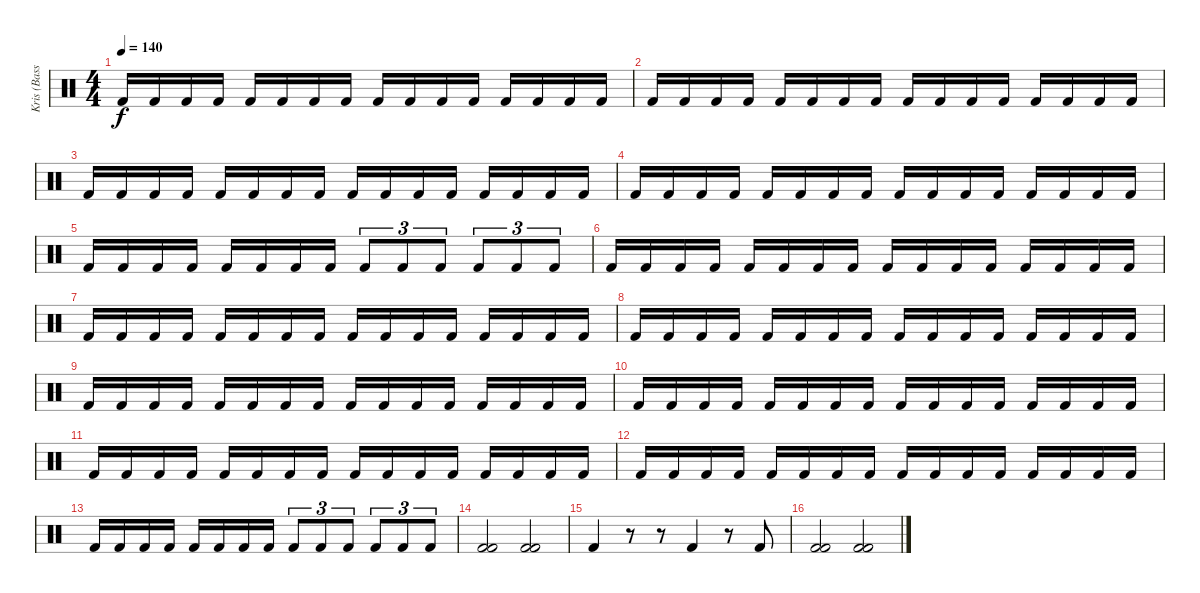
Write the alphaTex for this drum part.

\track ("Kris (Bass Drums)" "Kris (Bass") {instrument percussion}
\staff {score}
\articulation defaults
\ts (4 4)
\tempo 140
\clef neutral
\ks c "Kick (hit) 2".16{dy f} "Kick (hit) 2".16 "Kick (hit) 2".16 "Kick (hit) 2".16 "Kick (hit) 2".16 "Kick (hit) 2".16 "Kick (hit) 2".16 "Kick (hit) 2".16 "Kick (hit) 2".16 "Kick (hit) 2".16 "Kick (hit) 2".16 "Kick (hit) 2".16 "Kick (hit) 2".16 "Kick (hit) 2".16 "Kick (hit) 2".16 "Kick (hit) 2".16
|
"Kick (hit) 2".16 "Kick (hit) 2".16 "Kick (hit) 2".16 "Kick (hit) 2".16 "Kick (hit) 2".16 "Kick (hit) 2".16 "Kick (hit) 2".16 "Kick (hit) 2".16 "Kick (hit) 2".16 "Kick (hit) 2".16 "Kick (hit) 2".16 "Kick (hit) 2".16 "Kick (hit) 2".16 "Kick (hit) 2".16 "Kick (hit) 2".16 "Kick (hit) 2".16 |
"Kick (hit) 2".16 "Kick (hit) 2".16 "Kick (hit) 2".16 "Kick (hit) 2".16 "Kick (hit) 2".16 "Kick (hit) 2".16 "Kick (hit) 2".16 "Kick (hit) 2".16 "Kick (hit) 2".16 "Kick (hit) 2".16 "Kick (hit) 2".16 "Kick (hit) 2".16 "Kick (hit) 2".16 "Kick (hit) 2".16 "Kick (hit) 2".16 "Kick (hit) 2".16 |
"Kick (hit) 2".16 "Kick (hit) 2".16 "Kick (hit) 2".16 "Kick (hit) 2".16 "Kick (hit) 2".16 "Kick (hit) 2".16 "Kick (hit) 2".16 "Kick (hit) 2".16 "Kick (hit) 2".16 "Kick (hit) 2".16 "Kick (hit) 2".16 "Kick (hit) 2".16 "Kick (hit) 2".16 "Kick (hit) 2".16 "Kick (hit) 2".16 "Kick (hit) 2".16 |
"Kick (hit) 2".16 "Kick (hit) 2".16 "Kick (hit) 2".16 "Kick (hit) 2".16 "Kick (hit) 2".16 "Kick (hit) 2".16 "Kick (hit) 2".16 "Kick (hit) 2".16 "Kick (hit) 2".8{tu (3 2)} "Kick (hit) 2".8{tu (3 2)} "Kick (hit) 2".8{tu (3 2)} "Kick (hit) 2".8{tu (3 2)} "Kick (hit) 2".8{tu (3 2)} "Kick (hit) 2".8{tu (3 2)} |
"Kick (hit) 2".16 "Kick (hit) 2".16 "Kick (hit) 2".16 "Kick (hit) 2".16 "Kick (hit) 2".16 "Kick (hit) 2".16 "Kick (hit) 2".16 "Kick (hit) 2".16 "Kick (hit) 2".16 "Kick (hit) 2".16 "Kick (hit) 2".16 "Kick (hit) 2".16 "Kick (hit) 2".16 "Kick (hit) 2".16 "Kick (hit) 2".16 "Kick (hit) 2".16 |
"Kick (hit) 2".16 "Kick (hit) 2".16 "Kick (hit) 2".16 "Kick (hit) 2".16 "Kick (hit) 2".16 "Kick (hit) 2".16 "Kick (hit) 2".16 "Kick (hit) 2".16 "Kick (hit) 2".16 "Kick (hit) 2".16 "Kick (hit) 2".16 "Kick (hit) 2".16 "Kick (hit) 2".16 "Kick (hit) 2".16 "Kick (hit) 2".16 "Kick (hit) 2".16 |
"Kick (hit) 2".16 "Kick (hit) 2".16 "Kick (hit) 2".16 "Kick (hit) 2".16 "Kick (hit) 2".16 "Kick (hit) 2".16 "Kick (hit) 2".16 "Kick (hit) 2".16 "Kick (hit) 2".16 "Kick (hit) 2".16 "Kick (hit) 2".16 "Kick (hit) 2".16 "Kick (hit) 2".16 "Kick (hit) 2".16 "Kick (hit) 2".16 "Kick (hit) 2".16 |
"Kick (hit) 2".16 "Kick (hit) 2".16 "Kick (hit) 2".16 "Kick (hit) 2".16 "Kick (hit) 2".16 "Kick (hit) 2".16 "Kick (hit) 2".16 "Kick (hit) 2".16 "Kick (hit) 2".16 "Kick (hit) 2".16 "Kick (hit) 2".16 "Kick (hit) 2".16 "Kick (hit) 2".16 "Kick (hit) 2".16 "Kick (hit) 2".16 "Kick (hit) 2".16 |
"Kick (hit) 2".16 "Kick (hit) 2".16 "Kick (hit) 2".16 "Kick (hit) 2".16 "Kick (hit) 2".16 "Kick (hit) 2".16 "Kick (hit) 2".16 "Kick (hit) 2".16 "Kick (hit) 2".16 "Kick (hit) 2".16 "Kick (hit) 2".16 "Kick (hit) 2".16 "Kick (hit) 2".16 "Kick (hit) 2".16 "Kick (hit) 2".16 "Kick (hit) 2".16 |
"Kick (hit) 2".16 "Kick (hit) 2".16 "Kick (hit) 2".16 "Kick (hit) 2".16 "Kick (hit) 2".16 "Kick (hit) 2".16 "Kick (hit) 2".16 "Kick (hit) 2".16 "Kick (hit) 2".16 "Kick (hit) 2".16 "Kick (hit) 2".16 "Kick (hit) 2".16 "Kick (hit) 2".16 "Kick (hit) 2".16 "Kick (hit) 2".16 "Kick (hit) 2".16 |
"Kick (hit) 2".16 "Kick (hit) 2".16 "Kick (hit) 2".16 "Kick (hit) 2".16 "Kick (hit) 2".16 "Kick (hit) 2".16 "Kick (hit) 2".16 "Kick (hit) 2".16 "Kick (hit) 2".16 "Kick (hit) 2".16 "Kick (hit) 2".16 "Kick (hit) 2".16 "Kick (hit) 2".16 "Kick (hit) 2".16 "Kick (hit) 2".16 "Kick (hit) 2".16 |
"Kick (hit) 2".16 "Kick (hit) 2".16 "Kick (hit) 2".16 "Kick (hit) 2".16 "Kick (hit) 2".16 "Kick (hit) 2".16 "Kick (hit) 2".16 "Kick (hit) 2".16 "Kick (hit) 2".8{tu (3 2)} "Kick (hit) 2".8{tu (3 2)} "Kick (hit) 2".8{tu (3 2)} "Kick (hit) 2".8{tu (3 2)} "Kick (hit) 2".8{tu (3 2)} "Kick (hit) 2".8{tu (3 2)} |
("Kick (hit) 2" "Kick (hit) 2").2 ("Kick (hit) 2" "Kick (hit) 2").2 |
"Kick (hit) 2".4 r.8 r.8 "Kick (hit) 2".4 r.8 "Kick (hit) 2".8 |
("Kick (hit) 2" "Kick (hit) 2").2 ("Kick (hit) 2" "Kick (hit) 2").2
